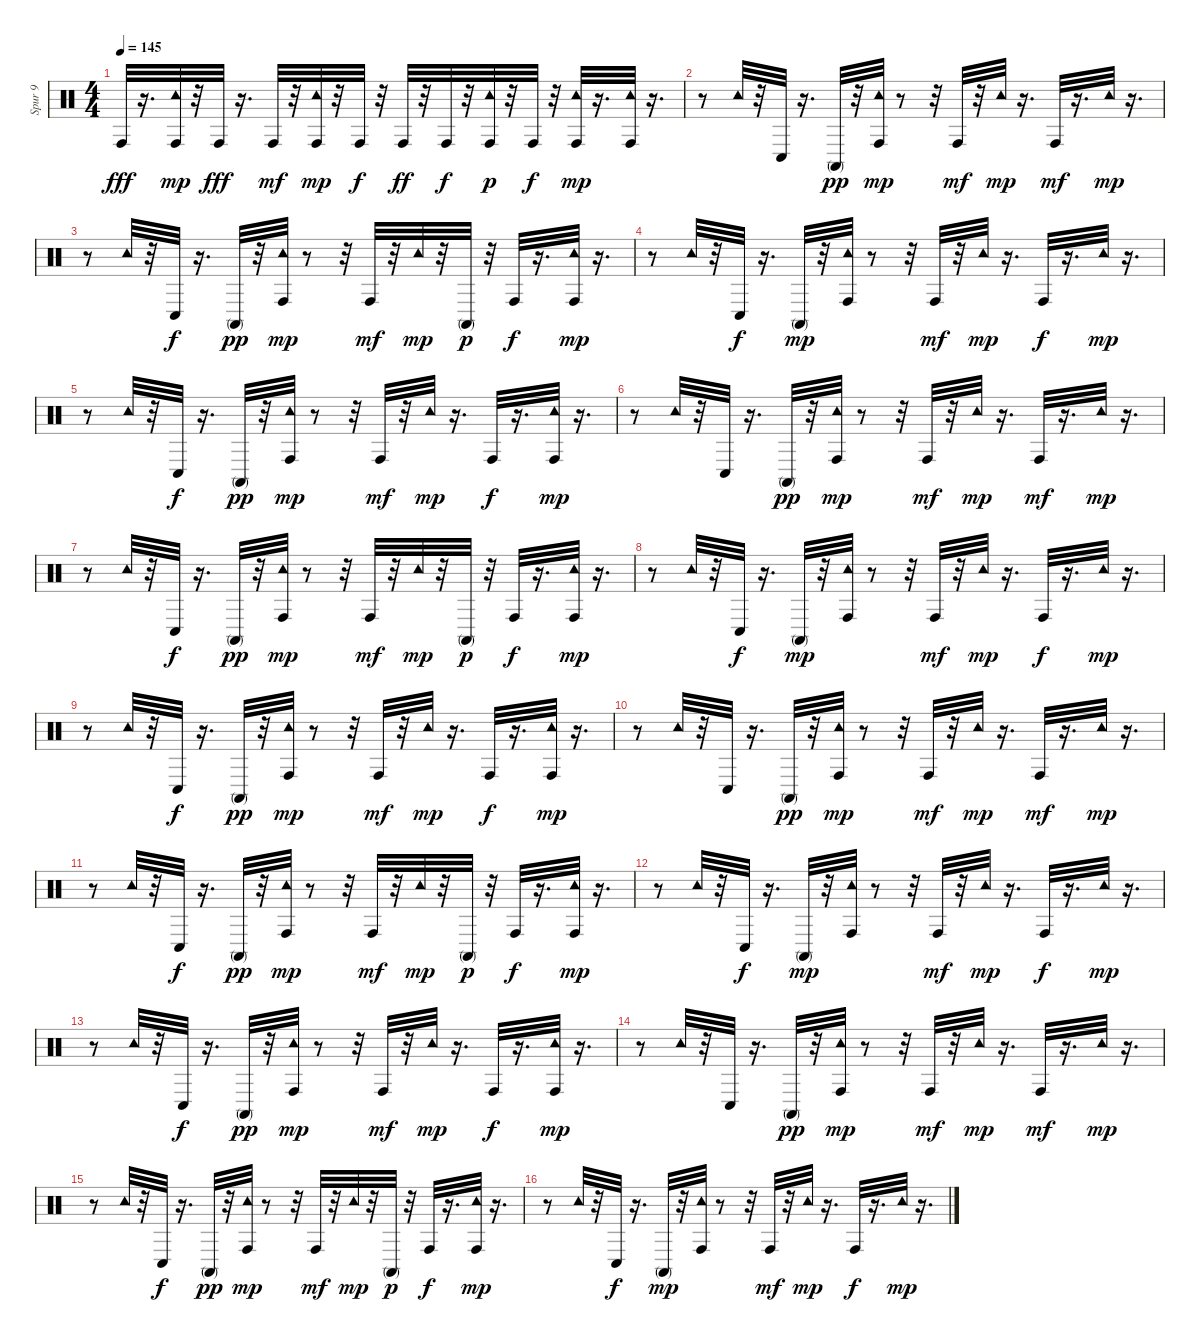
\track ("Spur 9" "Spur 9") {instrument percussion}
\staff {score}
\articulation defaults
\ts (4 4)
\tempo 145
\clef neutral
\ks c "Conga high (hit)".32{dy fff}
r.16{d} ("Conga high (hit)" "Tambourine (hit)").32{dy mp} r.32 "Conga high (hit)".32{dy fff} r.16{d} "Conga high (hit)".32{dy mf} r.32 ("Conga high (hit)" "Tambourine (hit)").32{dy mp} r.32 "Conga high (hit)".32{dy f} r.32 "Conga high (hit)".32{dy ff} r.32 "Conga high (hit)".32{dy f} r.32 ("Conga high (hit)" "Tambourine (hit)").32{dy p} r.32 "Conga high (hit)".32{dy f} r.32 ("Conga high (hit)" "Tambourine (hit)").32{dy mp} r.16{d} ("Conga high (hit)" "Tambourine (hit)").32 r.16{d} |
r.8 "Tambourine (hit)".32 r.32 "Conga low (hit)".32 r.16{d} "Conga high (mute)".32{dy pp} r.32 ("Conga high (hit)" "Tambourine (hit)").32{dy mp} r.8 r.32 "Conga high (hit)".32{dy mf} r.32 "Tambourine (hit)".32{dy mp} r.16{d} "Conga high (hit)".32{dy mf} r.16{d} "Tambourine (hit)".32{dy mp} r.16{d} |
r.8 "Tambourine (hit)".32 r.32 "Conga low (hit)".32{dy f} r.16{d} "Conga high (mute)".32{dy pp} r.32 ("Conga high (hit)" "Tambourine (hit)").32{dy mp} r.8 r.32 "Conga high (hit)".32{dy mf} r.32 "Tambourine (hit)".32{dy mp} r.32 "Conga high (mute)".32{dy p} r.32 "Conga high (hit)".32{dy f} r.16{d} ("Conga high (hit)" "Tambourine (hit)").32{dy mp} r.16{d} |
r.8 "Tambourine (hit)".32 r.32 "Conga low (hit)".32{dy f} r.16{d} "Conga high (mute)".32{dy mp} r.32 ("Conga high (hit)" "Tambourine (hit)").32 r.8 r.32 "Conga high (hit)".32{dy mf} r.32 "Tambourine (hit)".32{dy mp} r.16{d} "Conga high (hit)".32{dy f} r.16{d} "Tambourine (hit)".32{dy mp} r.16{d} |
r.8 "Tambourine (hit)".32 r.32 "Conga low (hit)".32{dy f} r.16{d} "Conga high (mute)".32{dy pp} r.32 ("Conga high (hit)" "Tambourine (hit)").32{dy mp} r.8 r.32 "Conga high (hit)".32{dy mf} r.32 "Tambourine (hit)".32{dy mp} r.16{d} "Conga high (hit)".32{dy f} r.16{d} ("Conga high (hit)" "Tambourine (hit)").32{dy mp} r.16{d} |
r.8 "Tambourine (hit)".32 r.32 "Conga low (hit)".32 r.16{d} "Conga high (mute)".32{dy pp} r.32 ("Conga high (hit)" "Tambourine (hit)").32{dy mp} r.8 r.32 "Conga high (hit)".32{dy mf} r.32 "Tambourine (hit)".32{dy mp} r.16{d} "Conga high (hit)".32{dy mf} r.16{d} "Tambourine (hit)".32{dy mp} r.16{d} |
r.8 "Tambourine (hit)".32 r.32 "Conga low (hit)".32{dy f} r.16{d} "Conga high (mute)".32{dy pp} r.32 ("Conga high (hit)" "Tambourine (hit)").32{dy mp} r.8 r.32 "Conga high (hit)".32{dy mf} r.32 "Tambourine (hit)".32{dy mp} r.32 "Conga high (mute)".32{dy p} r.32 "Conga high (hit)".32{dy f} r.16{d} ("Conga high (hit)" "Tambourine (hit)").32{dy mp} r.16{d} |
r.8 "Tambourine (hit)".32 r.32 "Conga low (hit)".32{dy f} r.16{d} "Conga high (mute)".32{dy mp} r.32 ("Conga high (hit)" "Tambourine (hit)").32 r.8 r.32 "Conga high (hit)".32{dy mf} r.32 "Tambourine (hit)".32{dy mp} r.16{d} "Conga high (hit)".32{dy f} r.16{d} "Tambourine (hit)".32{dy mp} r.16{d} |
r.8 "Tambourine (hit)".32 r.32 "Conga low (hit)".32{dy f} r.16{d} "Conga high (mute)".32{dy pp} r.32 ("Conga high (hit)" "Tambourine (hit)").32{dy mp} r.8 r.32 "Conga high (hit)".32{dy mf} r.32 "Tambourine (hit)".32{dy mp} r.16{d} "Conga high (hit)".32{dy f} r.16{d} ("Conga high (hit)" "Tambourine (hit)").32{dy mp} r.16{d} |
r.8 "Tambourine (hit)".32 r.32 "Conga low (hit)".32 r.16{d} "Conga high (mute)".32{dy pp} r.32 ("Conga high (hit)" "Tambourine (hit)").32{dy mp} r.8 r.32 "Conga high (hit)".32{dy mf} r.32 "Tambourine (hit)".32{dy mp} r.16{d} "Conga high (hit)".32{dy mf} r.16{d} "Tambourine (hit)".32{dy mp} r.16{d} |
r.8 "Tambourine (hit)".32 r.32 "Conga low (hit)".32{dy f} r.16{d} "Conga high (mute)".32{dy pp} r.32 ("Conga high (hit)" "Tambourine (hit)").32{dy mp} r.8 r.32 "Conga high (hit)".32{dy mf} r.32 "Tambourine (hit)".32{dy mp} r.32 "Conga high (mute)".32{dy p} r.32 "Conga high (hit)".32{dy f} r.16{d} ("Conga high (hit)" "Tambourine (hit)").32{dy mp} r.16{d} |
r.8 "Tambourine (hit)".32 r.32 "Conga low (hit)".32{dy f} r.16{d} "Conga high (mute)".32{dy mp} r.32 ("Conga high (hit)" "Tambourine (hit)").32 r.8 r.32 "Conga high (hit)".32{dy mf} r.32 "Tambourine (hit)".32{dy mp} r.16{d} "Conga high (hit)".32{dy f} r.16{d} "Tambourine (hit)".32{dy mp} r.16{d} |
r.8 "Tambourine (hit)".32 r.32 "Conga low (hit)".32{dy f} r.16{d} "Conga high (mute)".32{dy pp} r.32 ("Conga high (hit)" "Tambourine (hit)").32{dy mp} r.8 r.32 "Conga high (hit)".32{dy mf} r.32 "Tambourine (hit)".32{dy mp} r.16{d} "Conga high (hit)".32{dy f} r.16{d} ("Conga high (hit)" "Tambourine (hit)").32{dy mp} r.16{d} |
r.8 "Tambourine (hit)".32 r.32 "Conga low (hit)".32 r.16{d} "Conga high (mute)".32{dy pp} r.32 ("Conga high (hit)" "Tambourine (hit)").32{dy mp} r.8 r.32 "Conga high (hit)".32{dy mf} r.32 "Tambourine (hit)".32{dy mp} r.16{d} "Conga high (hit)".32{dy mf} r.16{d} "Tambourine (hit)".32{dy mp} r.16{d} |
r.8 "Tambourine (hit)".32 r.32 "Conga low (hit)".32{dy f} r.16{d} "Conga high (mute)".32{dy pp} r.32 ("Conga high (hit)" "Tambourine (hit)").32{dy mp} r.8 r.32 "Conga high (hit)".32{dy mf} r.32 "Tambourine (hit)".32{dy mp} r.32 "Conga high (mute)".32{dy p} r.32 "Conga high (hit)".32{dy f} r.16{d} ("Conga high (hit)" "Tambourine (hit)").32{dy mp} r.16{d} |
r.8 "Tambourine (hit)".32 r.32 "Conga low (hit)".32{dy f} r.16{d} "Conga high (mute)".32{dy mp} r.32 ("Conga high (hit)" "Tambourine (hit)").32 r.8 r.32 "Conga high (hit)".32{dy mf} r.32 "Tambourine (hit)".32{dy mp} r.16{d} "Conga high (hit)".32{dy f} r.16{d} "Tambourine (hit)".32{dy mp} r.16{d}
